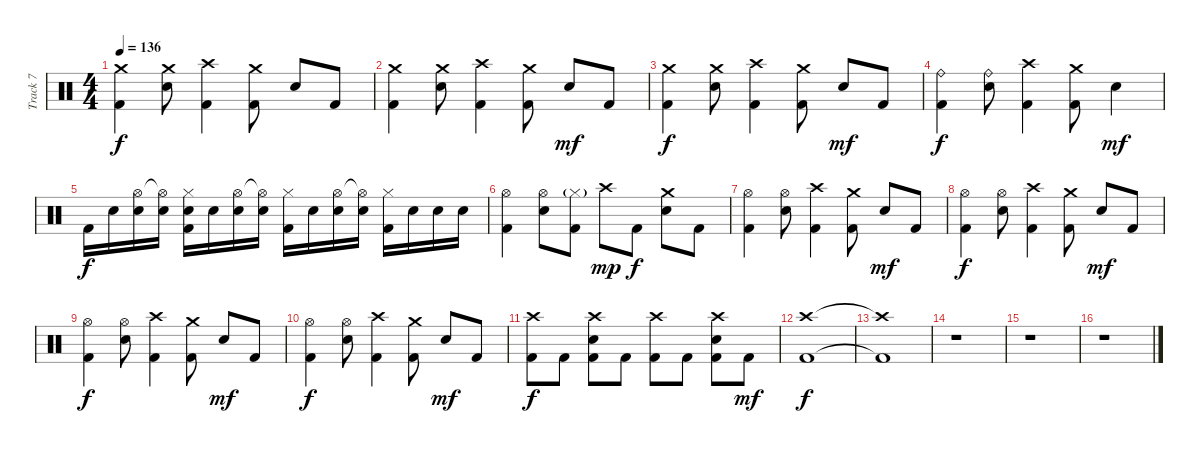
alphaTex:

\track ("Track 7" "Track 7") {instrument percussion}
\staff {score}
\articulation defaults
\ts (4 4)
\tempo 136
\clef neutral
\ks c
("Crash medium (hit)" "Kick (hit) 2").4{dy f} ("Crash medium (hit)" "Electric Snare (hit)").8 ("Crash high (hit)" "Kick (hit) 2").4 ("Crash medium (hit)" "Kick (hit) 2").8 "Electric Snare (hit)".8 "Kick (hit) 2".8 |
("Crash medium (hit)" "Kick (hit) 2").4 ("Crash medium (hit)" "Electric Snare (hit)").8 ("Crash high (hit)" "Kick (hit) 2").4 ("Crash medium (hit)" "Kick (hit) 2").8 "Electric Snare (hit)".8{dy mf} "Kick (hit) 2".8 |
("Crash medium (hit)" "Kick (hit) 2").4{dy f} ("Crash medium (hit)" "Electric Snare (hit)").8 ("Crash high (hit)" "Kick (hit) 2").4 ("Crash medium (hit)" "Kick (hit) 2").8 "Electric Snare (hit)".8{dy mf} "Kick (hit) 2".8 |
("Ride (bell)" "Kick (hit) 2").4{dy f} ("Ride (bell)" "Electric Snare (hit)").8 ("Crash high (hit)" "Kick (hit) 2").4 ("Crash medium (hit)" "Kick (hit) 2").8 "Electric Snare (hit)".4{dy mf} |
"Kick (hit) 2".16{dy f} "Electric Snare (hit)".16 ("Hi-Hat (open)" "Electric Snare (hit)").16 ("Hi-Hat (open)"{t} "Electric Snare (hit)").16 ("Hi-Hat (closed)" "Electric Snare (hit)" "Kick (hit) 2").16 "Electric Snare (hit)".16 ("Hi-Hat (open)" "Electric Snare (hit)").16 ("Hi-Hat (open)"{t} "Electric Snare (hit)").16 ("Hi-Hat (closed)" "Kick (hit) 2").16 "Electric Snare (hit)".16 ("Hi-Hat (open)" "Electric Snare (hit)").16 ("Hi-Hat (open)"{t} "Electric Snare (hit)").16 ("Hi-Hat (closed)" "Kick (hit) 2").16 "Electric Snare (hit)".16 "Electric Snare (hit)".16 "Electric Snare (hit)".16 |
("Hi-Hat (open)" "Kick (hit) 2").4 ("Hi-Hat (open)" "Electric Snare (hit)").8 ("Hi-Hat (closed)"{g} "Kick (hit) 2").8 "Crash high (hit)".8{dy mp} "Kick (hit) 2".8{dy f} ("Crash medium (hit)" "Electric Snare (hit)").8 "Kick (hit) 2".8 |
("Hi-Hat (open)" "Kick (hit) 2").4 ("Hi-Hat (open)" "Electric Snare (hit)").8 ("Crash high (hit)" "Kick (hit) 2").4 ("Crash medium (hit)" "Kick (hit) 2").8 "Electric Snare (hit)".8{dy mf} "Kick (hit) 2".8 |
("Hi-Hat (open)" "Kick (hit) 2").4{dy f} ("Hi-Hat (open)" "Electric Snare (hit)").8 ("Crash high (hit)" "Kick (hit) 2").4 ("Crash medium (hit)" "Kick (hit) 2").8 "Electric Snare (hit)".8{dy mf} "Kick (hit) 2".8 |
("Hi-Hat (open)" "Kick (hit) 2").4{dy f} ("Hi-Hat (open)" "Electric Snare (hit)").8 ("Crash high (hit)" "Kick (hit) 2").4 ("Crash medium (hit)" "Kick (hit) 2").8 "Electric Snare (hit)".8{dy mf} "Kick (hit) 2".8 |
("Hi-Hat (open)" "Kick (hit) 2").4{dy f} ("Hi-Hat (open)" "Electric Snare (hit)").8 ("Crash high (hit)" "Kick (hit) 2").4 ("Crash medium (hit)" "Kick (hit) 2").8 "Electric Snare (hit)".8{dy mf} "Kick (hit) 2".8 |
("Crash high (hit)" "Kick (hit) 2").8{dy f} "Kick (hit) 2".8 ("Crash high (hit)" "Electric Snare (hit)" "Kick (hit) 2").8 "Kick (hit) 2".8 ("Crash high (hit)" "Kick (hit) 2").8 "Kick (hit) 2".8 ("Crash high (hit)" "Electric Snare (hit)" "Kick (hit) 2").8 "Kick (hit) 2".8{dy mf} |
("Crash high (hit)" "Kick (hit) 2").1{dy f} |
("Crash high (hit)"{t} "Kick (hit) 2"{t}).1 |
r.1 |
r.1 |
r.1
